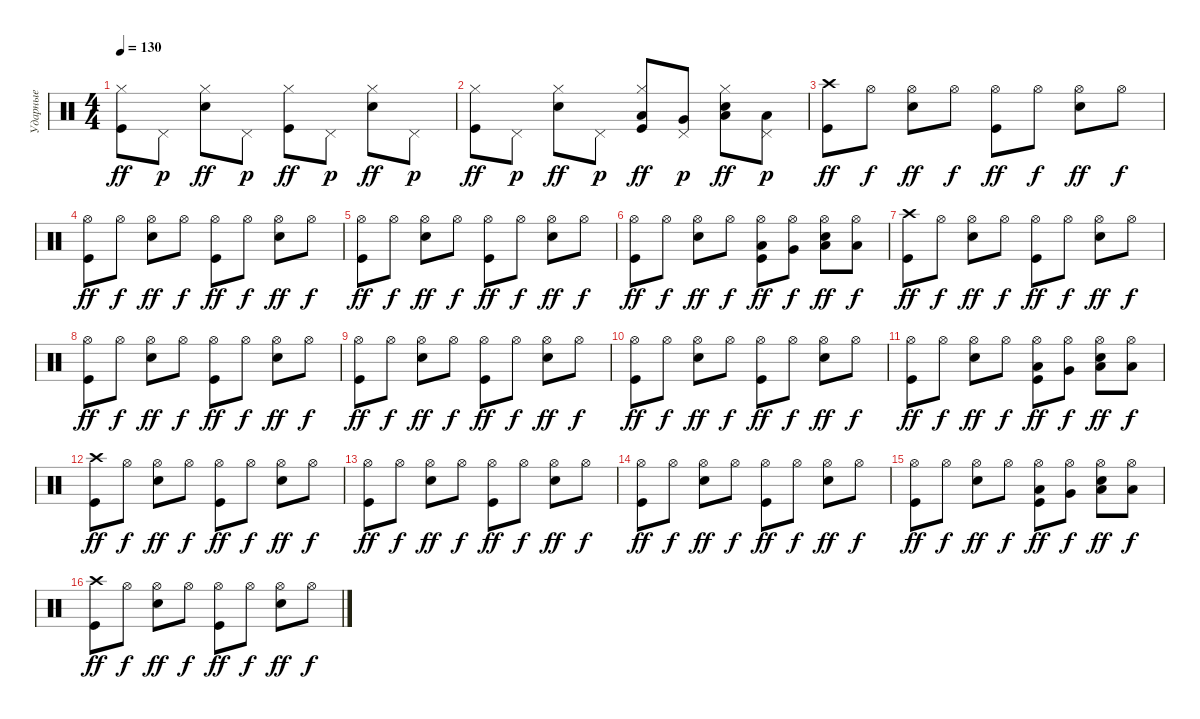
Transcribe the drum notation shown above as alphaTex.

\track ("Ударные" "Ударные") {instrument percussion}
\staff {score}
\articulation defaults
\ts (4 4)
\tempo 130
\clef neutral
\ks c
("Kick (hit)" "Hi-Hat (closed)").8{dy ff} "Pedal Hi-Hat (hit)".8{dy p} ("Electric Snare (hit)" "Hi-Hat (closed)").8{dy ff} "Pedal Hi-Hat (hit)".8{dy p} ("Kick (hit)" "Hi-Hat (closed)").8{dy ff} "Pedal Hi-Hat (hit)".8{dy p} ("Electric Snare (hit)" "Hi-Hat (closed)").8{dy ff} "Pedal Hi-Hat (hit)".8{dy p} |
("Kick (hit)" "Hi-Hat (closed)").8{dy ff} "Pedal Hi-Hat (hit)".8{dy p} ("Electric Snare (hit)" "Hi-Hat (closed)").8{dy ff} "Pedal Hi-Hat (hit)".8{dy p} ("Kick (hit)" "Hi-Hat (closed)" "Low Tom (hit)").8{dy ff} ("Pedal Hi-Hat (hit)" "Very Low Tom (hit)").8{dy p} ("Electric Snare (hit)" "Hi-Hat (closed)" "Low Tom (hit)").8{dy ff} ("Pedal Hi-Hat (hit)" "Low Floor Tom (hit)").8{dy p} |
("Kick (hit)" "Crash high (hit)").8{dy ff} "Hi-Hat (open)".8{dy f} ("Electric Snare (hit)" "Hi-Hat (open)").8{dy ff} "Hi-Hat (open)".8{dy f} ("Kick (hit)" "Hi-Hat (open)").8{dy ff} "Hi-Hat (open)".8{dy f} ("Electric Snare (hit)" "Hi-Hat (open)").8{dy ff} "Hi-Hat (open)".8{dy f} |
("Kick (hit)" "Hi-Hat (open)").8{dy ff} "Hi-Hat (open)".8{dy f} ("Electric Snare (hit)" "Hi-Hat (open)").8{dy ff} "Hi-Hat (open)".8{dy f} ("Kick (hit)" "Hi-Hat (open)").8{dy ff} "Hi-Hat (open)".8{dy f} ("Electric Snare (hit)" "Hi-Hat (open)").8{dy ff} "Hi-Hat (open)".8{dy f} |
("Kick (hit)" "Hi-Hat (open)").8{dy ff} "Hi-Hat (open)".8{dy f} ("Electric Snare (hit)" "Hi-Hat (open)").8{dy ff} "Hi-Hat (open)".8{dy f} ("Kick (hit)" "Hi-Hat (open)").8{dy ff} "Hi-Hat (open)".8{dy f} ("Electric Snare (hit)" "Hi-Hat (open)").8{dy ff} "Hi-Hat (open)".8{dy f} |
("Kick (hit)" "Hi-Hat (open)").8{dy ff} "Hi-Hat (open)".8{dy f} ("Electric Snare (hit)" "Hi-Hat (open)").8{dy ff} "Hi-Hat (open)".8{dy f} ("Kick (hit)" "Hi-Hat (open)" "Low Tom (hit)").8{dy ff} ("Hi-Hat (open)" "Very Low Tom (hit)").8{dy f} ("Electric Snare (hit)" "Hi-Hat (open)" "Low Tom (hit)").8{dy ff} ("Hi-Hat (open)" "Low Floor Tom (hit)").8{dy f} |
("Kick (hit)" "Crash high (hit)").8{dy ff} "Hi-Hat (open)".8{dy f} ("Electric Snare (hit)" "Hi-Hat (open)").8{dy ff} "Hi-Hat (open)".8{dy f} ("Kick (hit)" "Hi-Hat (open)").8{dy ff} "Hi-Hat (open)".8{dy f} ("Electric Snare (hit)" "Hi-Hat (open)").8{dy ff} "Hi-Hat (open)".8{dy f} |
("Kick (hit)" "Hi-Hat (open)").8{dy ff} "Hi-Hat (open)".8{dy f} ("Electric Snare (hit)" "Hi-Hat (open)").8{dy ff} "Hi-Hat (open)".8{dy f} ("Kick (hit)" "Hi-Hat (open)").8{dy ff} "Hi-Hat (open)".8{dy f} ("Electric Snare (hit)" "Hi-Hat (open)").8{dy ff} "Hi-Hat (open)".8{dy f} |
("Kick (hit)" "Hi-Hat (open)").8{dy ff} "Hi-Hat (open)".8{dy f} ("Electric Snare (hit)" "Hi-Hat (open)").8{dy ff} "Hi-Hat (open)".8{dy f} ("Kick (hit)" "Hi-Hat (open)").8{dy ff} "Hi-Hat (open)".8{dy f} ("Electric Snare (hit)" "Hi-Hat (open)").8{dy ff} "Hi-Hat (open)".8{dy f} |
("Kick (hit)" "Hi-Hat (open)").8{dy ff} "Hi-Hat (open)".8{dy f} ("Electric Snare (hit)" "Hi-Hat (open)").8{dy ff} "Hi-Hat (open)".8{dy f} ("Kick (hit)" "Hi-Hat (open)").8{dy ff} "Hi-Hat (open)".8{dy f} ("Electric Snare (hit)" "Hi-Hat (open)").8{dy ff} "Hi-Hat (open)".8{dy f} |
("Kick (hit)" "Hi-Hat (open)").8{dy ff} "Hi-Hat (open)".8{dy f} ("Electric Snare (hit)" "Hi-Hat (open)").8{dy ff} "Hi-Hat (open)".8{dy f} ("Kick (hit)" "Hi-Hat (open)" "Low Tom (hit)").8{dy ff} ("Hi-Hat (open)" "Very Low Tom (hit)").8{dy f} ("Electric Snare (hit)" "Hi-Hat (open)" "Low Tom (hit)").8{dy ff} ("Hi-Hat (open)" "Low Floor Tom (hit)").8{dy f} |
("Kick (hit)" "Crash high (hit)").8{dy ff} "Hi-Hat (open)".8{dy f} ("Electric Snare (hit)" "Hi-Hat (open)").8{dy ff} "Hi-Hat (open)".8{dy f} ("Kick (hit)" "Hi-Hat (open)").8{dy ff} "Hi-Hat (open)".8{dy f} ("Electric Snare (hit)" "Hi-Hat (open)").8{dy ff} "Hi-Hat (open)".8{dy f} |
("Kick (hit)" "Hi-Hat (open)").8{dy ff} "Hi-Hat (open)".8{dy f} ("Electric Snare (hit)" "Hi-Hat (open)").8{dy ff} "Hi-Hat (open)".8{dy f} ("Kick (hit)" "Hi-Hat (open)").8{dy ff} "Hi-Hat (open)".8{dy f} ("Electric Snare (hit)" "Hi-Hat (open)").8{dy ff} "Hi-Hat (open)".8{dy f} |
("Kick (hit)" "Hi-Hat (open)").8{dy ff} "Hi-Hat (open)".8{dy f} ("Electric Snare (hit)" "Hi-Hat (open)").8{dy ff} "Hi-Hat (open)".8{dy f} ("Kick (hit)" "Hi-Hat (open)").8{dy ff} "Hi-Hat (open)".8{dy f} ("Electric Snare (hit)" "Hi-Hat (open)").8{dy ff} "Hi-Hat (open)".8{dy f} |
("Kick (hit)" "Hi-Hat (open)").8{dy ff} "Hi-Hat (open)".8{dy f} ("Electric Snare (hit)" "Hi-Hat (open)").8{dy ff} "Hi-Hat (open)".8{dy f} ("Kick (hit)" "Hi-Hat (open)" "Low Tom (hit)").8{dy ff} ("Hi-Hat (open)" "Very Low Tom (hit)").8{dy f} ("Electric Snare (hit)" "Hi-Hat (open)" "Low Tom (hit)").8{dy ff} ("Hi-Hat (open)" "Low Floor Tom (hit)").8{dy f} |
("Kick (hit)" "Crash high (hit)").8{dy ff} "Hi-Hat (open)".8{dy f} ("Electric Snare (hit)" "Hi-Hat (open)").8{dy ff} "Hi-Hat (open)".8{dy f} ("Kick (hit)" "Hi-Hat (open)").8{dy ff} "Hi-Hat (open)".8{dy f} ("Electric Snare (hit)" "Hi-Hat (open)").8{dy ff} "Hi-Hat (open)".8{dy f}
